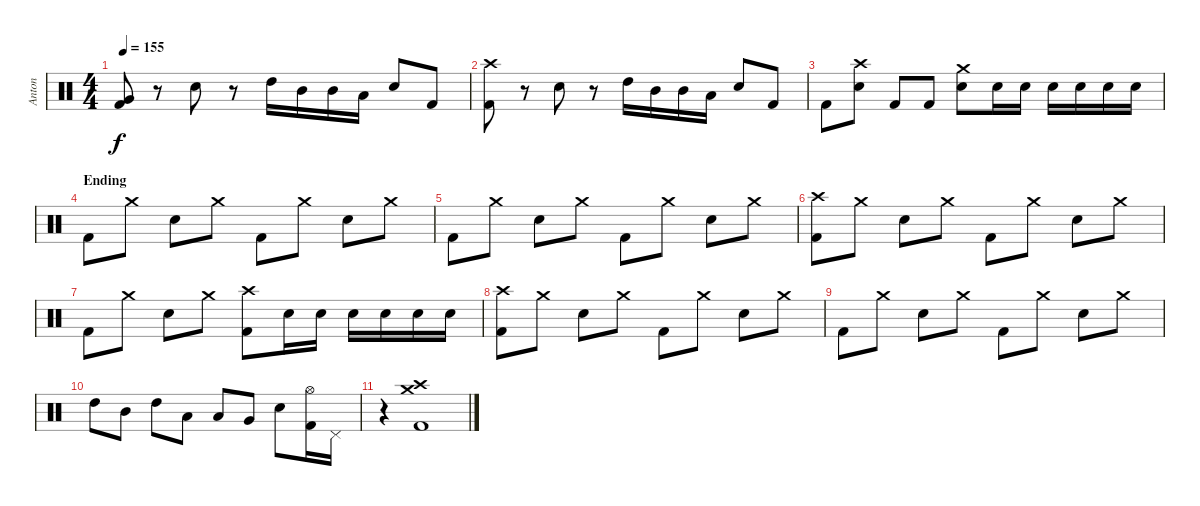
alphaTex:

\track ("Anton" "Anton") {instrument percussion}
\staff {score}
\articulation defaults
\ts (4 4)
\tempo 155
\clef neutral
\ks c
("Kick (hit) 2" "Very Low Tom (hit)").8{dy f} r.8 "Snare (hit) 2".8 r.8 "High Tom (hit)".16 "Mid Tom (hit)".16 "Mid Tom (hit)".16 "Low Tom (hit)".16 "Snare (hit) 2".8 "Kick (hit) 2".8 |
("Kick (hit) 2" "Crash high (hit)").8 r.8 "Snare (hit) 2".8 r.8 "High Tom (hit)".16 "Mid Tom (hit)".16 "Mid Tom (hit)".16 "Low Tom (hit)".16 "Snare (hit) 2".8 "Kick (hit) 2".8 |
"Kick (hit) 2".8 ("Snare (hit) 2" "Crash high (hit)").8 "Kick (hit) 2".8 "Kick (hit) 2".8 ("Snare (hit) 2" "Crash medium (hit)").8 "Snare (hit) 2".16 "Snare (hit) 2".16 "Snare (hit) 2".16 "Snare (hit) 2".16 "Snare (hit) 2".16 "Snare (hit) 2".16 |
\section ("" "Ending")
"Kick (hit) 2".8 "Crash medium (hit)".8 "Snare (hit) 2".8 "Crash medium (hit)".8 "Kick (hit) 2".8 "Crash medium (hit)".8 "Snare (hit) 2".8 "Crash medium (hit)".8 |
"Kick (hit) 2".8 "Crash medium (hit)".8 "Snare (hit) 2".8 "Crash medium (hit)".8 "Kick (hit) 2".8 "Crash medium (hit)".8 "Snare (hit) 2".8 "Crash medium (hit)".8 |
("Kick (hit) 2" "Crash high (hit)").8 "Crash medium (hit)".8 "Snare (hit) 2".8 "Crash medium (hit)".8 "Kick (hit) 2".8 "Crash medium (hit)".8 "Snare (hit) 2".8 "Crash medium (hit)".8 |
"Kick (hit) 2".8 "Crash medium (hit)".8 "Snare (hit) 2".8 "Crash medium (hit)".8 ("Kick (hit) 2" "Crash high (hit)").8 "Snare (hit) 2".16 "Snare (hit) 2".16 "Snare (hit) 2".16 "Snare (hit) 2".16 "Snare (hit) 2".16 "Snare (hit) 2".16 |
("Kick (hit) 2" "Crash high (hit)").8 "Crash medium (hit)".8 "Electric Snare (hit)".8 "Crash medium (hit)".8 "Kick (hit) 2".8 "Crash medium (hit)".8 "Electric Snare (hit)".8 "Crash medium (hit)".8 |
"Kick (hit) 2".8 "Crash medium (hit)".8 "Electric Snare (hit)".8 "Crash medium (hit)".8 "Kick (hit) 2".8 "Crash medium (hit)".8 "Electric Snare (hit)".8 "Crash medium (hit)".8 |
"High Tom (hit)".8 "Mid Tom (hit)".8 "High Tom (hit)".8 "Low Tom (hit)".8 "Low Tom (hit)".8 "Very Low Tom (hit)".8 "Snare (hit) 2".8 ("Kick (hit) 2" "Hi-Hat (open)").16 "Pedal Hi-Hat (hit)".16 |
r.4 ("Kick (hit) 2" "Crash high (hit)" "Crash medium (hit)").1
